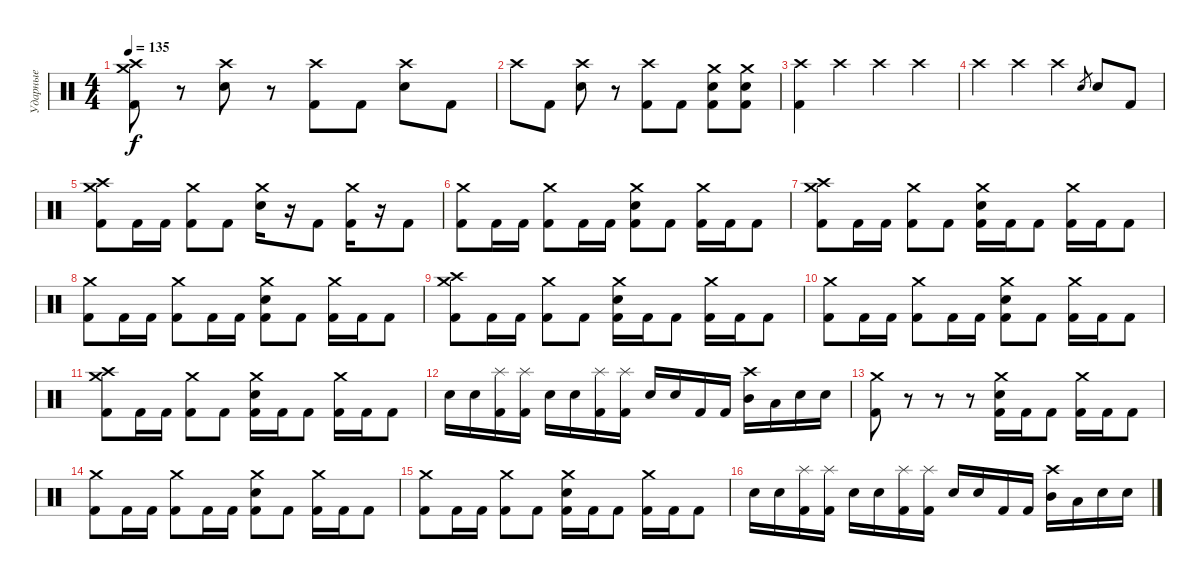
\track ("Ударные" "Ударные") {instrument percussion}
\staff {score}
\articulation defaults
\ts (4 4)
\tempo 135
\clef neutral
\ks c
("Crash high (hit)" "Crash medium (hit)" "Kick (hit) 2").8{dy f} r.8 ("Crash high (hit)" "Electric Snare (hit)").8 r.8 ("Crash high (hit)" "Kick (hit) 2").8 "Kick (hit) 2".8 ("Crash high (hit)" "Electric Snare (hit)").8 "Kick (hit) 2".8 |
"Crash high (hit)".8 "Kick (hit) 2".8 ("Crash high (hit)" "Electric Snare (hit)").8 r.8 ("Crash high (hit)" "Kick (hit) 2").8 "Kick (hit) 2".8 ("Crash medium (hit)" "Electric Snare (hit)" "Kick (hit) 2").8 ("Crash medium (hit)" "Electric Snare (hit)" "Kick (hit) 2").8 |
("Crash high (hit)" "Kick (hit) 2").4 "Crash high (hit)".4 "Crash high (hit)".4 "Crash high (hit)".4 |
"Crash high (hit)".4 "Crash high (hit)".4 "Crash high (hit)".4 "Electric Snare (hit)".8{gr} "Electric Snare (hit)".8 "Kick (hit) 2".8 |
("Crash high (hit)" "Crash medium (hit)" "Kick (hit) 2").8 "Kick (hit) 2".16 "Kick (hit) 2".16 ("Crash medium (hit)" "Kick (hit) 2").8 "Kick (hit) 2".8 ("Crash medium (hit)" "Electric Snare (hit)").16 r.16 "Kick (hit) 2".8 ("Crash medium (hit)" "Kick (hit) 2").16 r.16 "Kick (hit) 2".8 |
("Crash medium (hit)" "Kick (hit) 2").8 "Kick (hit) 2".16 "Kick (hit) 2".16 ("Crash medium (hit)" "Kick (hit) 2").8 "Kick (hit) 2".16 "Kick (hit) 2".16 ("Crash medium (hit)" "Electric Snare (hit)" "Kick (hit) 2").8 "Kick (hit) 2".8 ("Crash medium (hit)" "Kick (hit) 2").16 "Kick (hit) 2".16 "Kick (hit) 2".8 |
("Crash high (hit)" "Crash medium (hit)" "Kick (hit) 2").8 "Kick (hit) 2".16 "Kick (hit) 2".16 ("Crash medium (hit)" "Kick (hit) 2").8 "Kick (hit) 2".8 ("Crash medium (hit)" "Electric Snare (hit)" "Kick (hit) 2").16 "Kick (hit) 2".16 "Kick (hit) 2".8 ("Crash medium (hit)" "Kick (hit) 2").16 "Kick (hit) 2".16 "Kick (hit) 2".8 |
("Crash medium (hit)" "Kick (hit) 2").8 "Kick (hit) 2".16 "Kick (hit) 2".16 ("Crash medium (hit)" "Kick (hit) 2").8 "Kick (hit) 2".16 "Kick (hit) 2".16 ("Crash medium (hit)" "Electric Snare (hit)" "Kick (hit) 2").8 "Kick (hit) 2".8 ("Crash medium (hit)" "Kick (hit) 2").16 "Kick (hit) 2".16 "Kick (hit) 2".8 |
("Crash high (hit)" "Crash medium (hit)" "Kick (hit) 2").8 "Kick (hit) 2".16 "Kick (hit) 2".16 ("Crash medium (hit)" "Kick (hit) 2").8 "Kick (hit) 2".8 ("Crash medium (hit)" "Electric Snare (hit)" "Kick (hit) 2").16 "Kick (hit) 2".16 "Kick (hit) 2".8 ("Crash medium (hit)" "Kick (hit) 2").16 "Kick (hit) 2".16 "Kick (hit) 2".8 |
("Crash medium (hit)" "Kick (hit) 2").8 "Kick (hit) 2".16 "Kick (hit) 2".16 ("Crash medium (hit)" "Kick (hit) 2").8 "Kick (hit) 2".16 "Kick (hit) 2".16 ("Crash medium (hit)" "Electric Snare (hit)" "Kick (hit) 2").8 "Kick (hit) 2".8 ("Crash medium (hit)" "Kick (hit) 2").16 "Kick (hit) 2".16 "Kick (hit) 2".8 |
("Crash high (hit)" "Crash medium (hit)" "Kick (hit) 2").8 "Kick (hit) 2".16 "Kick (hit) 2".16 ("Crash medium (hit)" "Kick (hit) 2").8 "Kick (hit) 2".8 ("Crash medium (hit)" "Electric Snare (hit)" "Kick (hit) 2").16 "Kick (hit) 2".16 "Kick (hit) 2".8 ("Crash medium (hit)" "Kick (hit) 2").16 "Kick (hit) 2".16 "Kick (hit) 2".8 |
"Electric Snare (hit)".16 "Electric Snare (hit)".16 ("Splash (hit)" "Kick (hit) 2").16 ("Splash (hit)" "Kick (hit) 2").16 "Electric Snare (hit)".16 "Electric Snare (hit)".16 ("Splash (hit)" "Kick (hit) 2").16 ("Splash (hit)" "Kick (hit) 2").16 "Electric Snare (hit)".16 "Electric Snare (hit)".16 "Kick (hit) 2".16 "Kick (hit) 2".16 ("Crash high (hit)" "Mid Tom (hit)").16 "Low Tom (hit)".16 "Electric Snare (hit)".16 "Electric Snare (hit)".16 |
("Crash medium (hit)" "Kick (hit) 2").8 r.8 r.8 r.8 ("Crash medium (hit)" "Electric Snare (hit)" "Kick (hit) 2").16 "Kick (hit) 2".16 "Kick (hit) 2".8 ("Crash medium (hit)" "Kick (hit) 2").16 "Kick (hit) 2".16 "Kick (hit) 2".8 |
("Crash medium (hit)" "Kick (hit) 2").8 "Kick (hit) 2".16 "Kick (hit) 2".16 ("Crash medium (hit)" "Kick (hit) 2").8 "Kick (hit) 2".16 "Kick (hit) 2".16 ("Crash medium (hit)" "Electric Snare (hit)" "Kick (hit) 2").8 "Kick (hit) 2".8 ("Crash medium (hit)" "Kick (hit) 2").16 "Kick (hit) 2".16 "Kick (hit) 2".8 |
("Crash medium (hit)" "Kick (hit) 2").8 "Kick (hit) 2".16 "Kick (hit) 2".16 ("Crash medium (hit)" "Kick (hit) 2").8 "Kick (hit) 2".8 ("Crash medium (hit)" "Electric Snare (hit)" "Kick (hit) 2").16 "Kick (hit) 2".16 "Kick (hit) 2".8 ("Crash medium (hit)" "Kick (hit) 2").16 "Kick (hit) 2".16 "Kick (hit) 2".8 |
"Electric Snare (hit)".16 "Electric Snare (hit)".16 ("Splash (hit)" "Kick (hit) 2").16 ("Splash (hit)" "Kick (hit) 2").16 "Electric Snare (hit)".16 "Electric Snare (hit)".16 ("Splash (hit)" "Kick (hit) 2").16 ("Splash (hit)" "Kick (hit) 2").16 "Electric Snare (hit)".16 "Electric Snare (hit)".16 "Kick (hit) 2".16 "Kick (hit) 2".16 ("Crash high (hit)" "Mid Tom (hit)").16 "Low Tom (hit)".16 "Electric Snare (hit)".16 "Electric Snare (hit)".16
